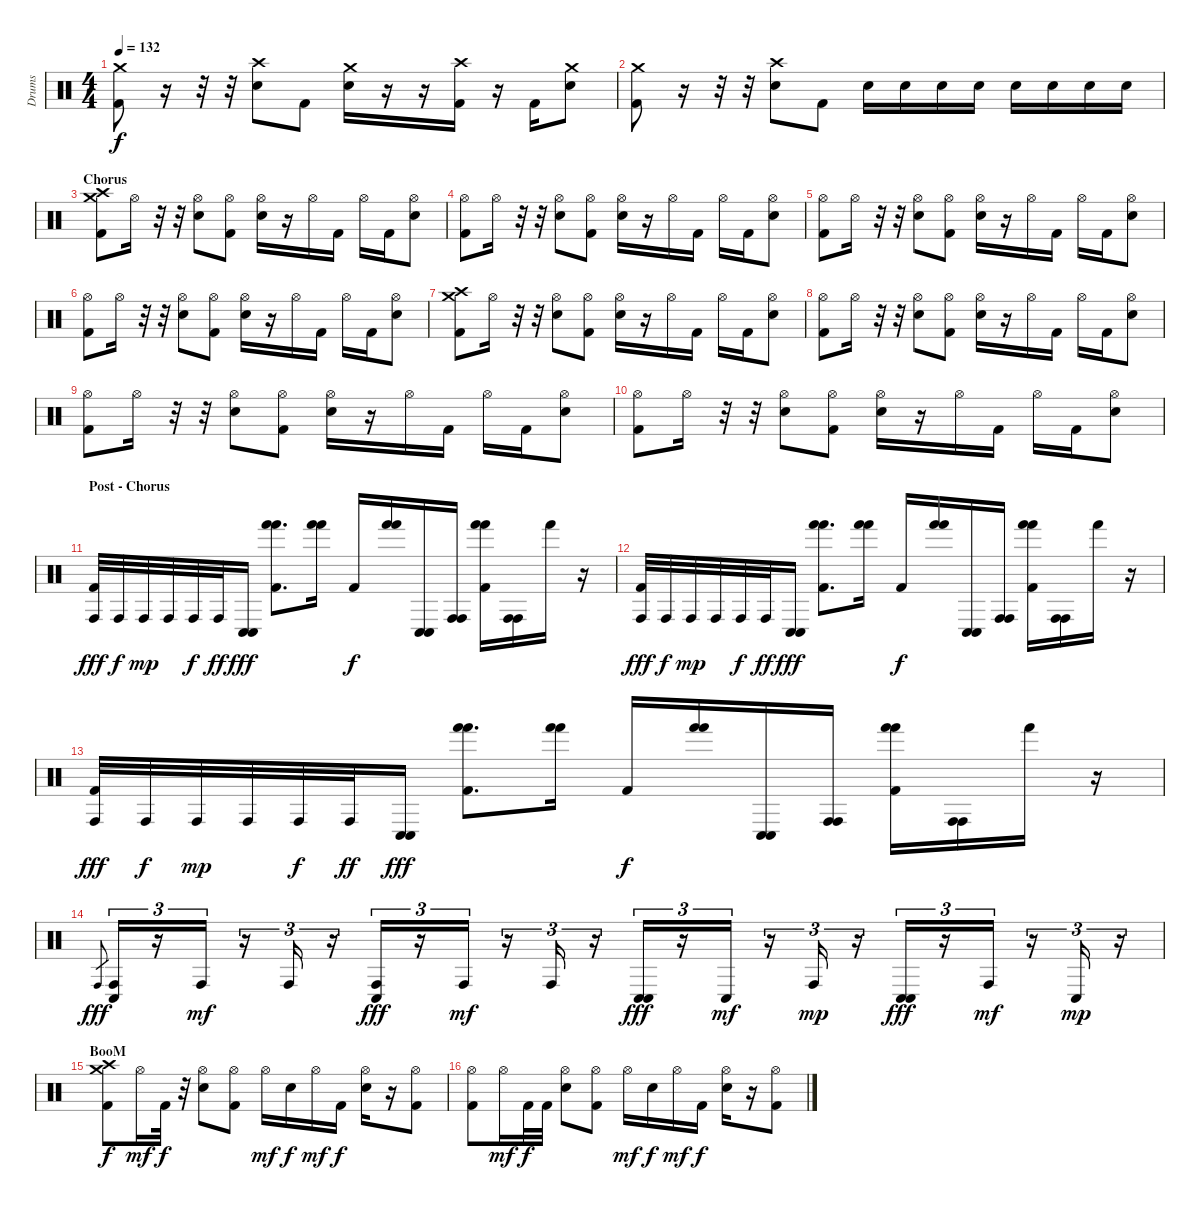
\track ("Drums" "Drums") {instrument percussion}
\staff {score}
\articulation defaults
\ts (4 4)
\tempo 132
\clef neutral
\ks c
("Crash medium (hit)" "Kick (hit) 2").8{dy f} r.16 r.32 r.32 ("Crash high (hit)" "Snare (hit) 2").8 "Kick (hit) 2".8 ("Crash medium (hit)" "Snare (hit) 2").16 r.16 r.16 ("Crash high (hit)" "Kick (hit) 2").16 r.16 "Kick (hit) 2".16 ("Crash medium (hit)" "Snare (hit) 2").8 |
("Crash medium (hit)" "Kick (hit) 2").8 r.16 r.32 r.32 ("Crash high (hit)" "Snare (hit) 2").8 "Kick (hit) 2".8 "Snare (hit) 2".16 "Snare (hit) 2".16 "Snare (hit) 2".16 "Snare (hit) 2".16 "Snare (hit) 2".16 "Snare (hit) 2".16 "Snare (hit) 2".16 "Snare (hit) 2".16 |
\section ("" "Chorus")
("Crash medium (hit)" "Crash high (hit)" "Kick (hit) 2").8 "Hi-Hat (open)".16 r.32 r.32 ("Hi-Hat (open)" "Snare (hit) 2").8 ("Hi-Hat (open)" "Kick (hit) 2").8 ("Hi-Hat (open)" "Snare (hit) 2").16 r.16 "Hi-Hat (open)".16 "Kick (hit) 2".16 "Hi-Hat (open)".16 "Kick (hit) 2".16 ("Hi-Hat (open)" "Snare (hit) 2").8 |
("Hi-Hat (open)" "Kick (hit) 2").8 "Hi-Hat (open)".16 r.32 r.32 ("Hi-Hat (open)" "Snare (hit) 2").8 ("Hi-Hat (open)" "Kick (hit) 2").8 ("Hi-Hat (open)" "Snare (hit) 2").16 r.16 "Hi-Hat (open)".16 "Kick (hit) 2".16 "Hi-Hat (open)".16 "Kick (hit) 2".16 ("Hi-Hat (open)" "Snare (hit) 2").8 |
("Hi-Hat (open)" "Kick (hit) 2").8 "Hi-Hat (open)".16 r.32 r.32 ("Hi-Hat (open)" "Snare (hit) 2").8 ("Hi-Hat (open)" "Kick (hit) 2").8 ("Hi-Hat (open)" "Snare (hit) 2").16 r.16 "Hi-Hat (open)".16 "Kick (hit) 2".16 "Hi-Hat (open)".16 "Kick (hit) 2".16 ("Hi-Hat (open)" "Snare (hit) 2").8 |
("Hi-Hat (open)" "Kick (hit) 2").8 "Hi-Hat (open)".16 r.32 r.32 ("Hi-Hat (open)" "Snare (hit) 2").8 ("Hi-Hat (open)" "Kick (hit) 2").8 ("Hi-Hat (open)" "Snare (hit) 2").16 r.16 "Hi-Hat (open)".16 "Kick (hit) 2".16 "Hi-Hat (open)".16 "Kick (hit) 2".16 ("Hi-Hat (open)" "Snare (hit) 2").8 |
("Crash medium (hit)" "Crash high (hit)" "Kick (hit) 2").8 "Hi-Hat (open)".16 r.32 r.32 ("Hi-Hat (open)" "Snare (hit) 2").8 ("Hi-Hat (open)" "Kick (hit) 2").8 ("Hi-Hat (open)" "Snare (hit) 2").16 r.16 "Hi-Hat (open)".16 "Kick (hit) 2".16 "Hi-Hat (open)".16 "Kick (hit) 2".16 ("Hi-Hat (open)" "Snare (hit) 2").8 |
("Hi-Hat (open)" "Kick (hit) 2").8 "Hi-Hat (open)".16 r.32 r.32 ("Hi-Hat (open)" "Snare (hit) 2").8 ("Hi-Hat (open)" "Kick (hit) 2").8 ("Hi-Hat (open)" "Snare (hit) 2").16 r.16 "Hi-Hat (open)".16 "Kick (hit) 2".16 "Hi-Hat (open)".16 "Kick (hit) 2".16 ("Hi-Hat (open)" "Snare (hit) 2").8 |
("Hi-Hat (open)" "Kick (hit) 2").8 "Hi-Hat (open)".16 r.32 r.32 ("Hi-Hat (open)" "Snare (hit) 2").8 ("Hi-Hat (open)" "Kick (hit) 2").8 ("Hi-Hat (open)" "Snare (hit) 2").16 r.16 "Hi-Hat (open)".16 "Kick (hit) 2".16 "Hi-Hat (open)".16 "Kick (hit) 2".16 ("Hi-Hat (open)" "Snare (hit) 2").8 |
("Hi-Hat (open)" "Kick (hit) 2").8 "Hi-Hat (open)".16 r.32 r.32 ("Hi-Hat (open)" "Snare (hit) 2").8 ("Hi-Hat (open)" "Kick (hit) 2").8 ("Hi-Hat (open)" "Snare (hit) 2").16 r.16 "Hi-Hat (open)".16 "Kick (hit) 2".16 "Hi-Hat (open)".16 "Kick (hit) 2".16 ("Hi-Hat (open)" "Snare (hit) 2").8 |
\section ("" "Post - Chorus")
("Kick (hit) 2" "Conga high (hit)").32{dy fff} "Conga high (hit)".32{dy f} "Conga high (hit)".32{dy mp} "Conga high (hit)".32 "Conga high (hit)".32{dy f} "Conga high (hit)".32{dy ff} ("Conga low (hit)" "Conga low (hit)").16{dy fff} ("Kick (hit) 2" "Hand (hit)" "Hand (hit)").8{d} ("Hand (hit)" "Hand (hit)").16 "Kick (hit) 2".16{dy f} ("Hand (hit)" "Hand (hit)").16 ("Conga low (hit)" "Conga low (hit)").16 ("Conga high (hit)" "Conga high (hit)").16 ("Kick (hit) 2" "Hand (hit)" "Hand (hit)").16 ("Conga high (hit)" "Conga high (hit)").16 "Hand (hit)".16 r.16 |
("Kick (hit) 2" "Conga high (hit)").32{dy fff} "Conga high (hit)".32{dy f} "Conga high (hit)".32{dy mp} "Conga high (hit)".32 "Conga high (hit)".32{dy f} "Conga high (hit)".32{dy ff} ("Conga low (hit)" "Conga low (hit)").16{dy fff} ("Kick (hit) 2" "Hand (hit)" "Hand (hit)").8{d} ("Hand (hit)" "Hand (hit)").16 "Kick (hit) 2".16{dy f} ("Hand (hit)" "Hand (hit)").16 ("Conga low (hit)" "Conga low (hit)").16 ("Conga high (hit)" "Conga high (hit)").16 ("Kick (hit) 2" "Hand (hit)" "Hand (hit)").16 ("Conga high (hit)" "Conga high (hit)").16 "Hand (hit)".16 r.16 |
("Kick (hit) 2" "Conga high (hit)").32{dy fff} "Conga high (hit)".32{dy f} "Conga high (hit)".32{dy mp} "Conga high (hit)".32 "Conga high (hit)".32{dy f} "Conga high (hit)".32{dy ff} ("Conga low (hit)" "Conga low (hit)").16{dy fff} ("Kick (hit) 2" "Hand (hit)" "Hand (hit)").8{d} ("Hand (hit)" "Hand (hit)").16 "Kick (hit) 2".16{dy f} ("Hand (hit)" "Hand (hit)").16 ("Conga low (hit)" "Conga low (hit)").16 ("Conga high (hit)" "Conga high (hit)").16 ("Kick (hit) 2" "Hand (hit)" "Hand (hit)").16 ("Conga high (hit)" "Conga high (hit)").16 "Hand (hit)".16 r.16 |
"Conga high (hit)".8{gr dy fff} ("Conga low (hit)" "Conga high (hit)").16{tu (3 2)} r.16{tu (3 2)} "Conga high (hit)".16{tu (3 2) dy mf} r.16{tu (3 2)} "Conga high (hit)".16{tu (3 2)} r.16{tu (3 2)} ("Conga high (hit)" "Conga low (hit)").16{tu (3 2) dy fff} r.16{tu (3 2)} "Conga high (hit)".16{tu (3 2) dy mf} r.16{tu (3 2)} "Conga high (hit)".16{tu (3 2)} r.16{tu (3 2)} ("Conga low (hit)" "Conga low (hit)").16{tu (3 2) dy fff} r.16{tu (3 2)} "Conga low (hit)".16{tu (3 2) dy mf} r.16{tu (3 2)} "Conga high (hit)".16{tu (3 2) dy mp} r.16{tu (3 2)} ("Conga low (hit)" "Conga low (hit)").16{tu (3 2) dy fff} r.16{tu (3 2)} "Conga high (hit)".16{tu (3 2) dy mf} r.16{tu (3 2)} "Conga low (hit)".16{tu (3 2) dy mp} r.16{tu (3 2)} |
\section ("" "BooM")
("Crash high (hit)" "Crash medium (hit)" "Kick (hit) 2").8{dy f} "Hi-Hat (open)".16{dy mf} "Kick (hit) 2".32{dy f} r.32 ("Hi-Hat (open)" "Snare (hit) 2").8 ("Hi-Hat (open)" "Kick (hit) 2").8 "Hi-Hat (open)".16{dy mf} "Snare (hit) 2".16{dy f} "Hi-Hat (open)".16{dy mf} "Kick (hit) 2".16{dy f} ("Hi-Hat (open)" "Snare (hit) 2").16 r.16 ("Hi-Hat (open)" "Kick (hit) 2").8 |
("Hi-Hat (open)" "Kick (hit) 2").8 "Hi-Hat (open)".16{dy mf} "Kick (hit) 2".32{dy f} "Kick (hit) 2".32 ("Hi-Hat (open)" "Snare (hit) 2").8 ("Hi-Hat (open)" "Kick (hit) 2").8 "Hi-Hat (open)".16{dy mf} "Snare (hit) 2".16{dy f} "Hi-Hat (open)".16{dy mf} "Kick (hit) 2".16{dy f} ("Hi-Hat (open)" "Snare (hit) 2").16 r.16 ("Hi-Hat (open)" "Kick (hit) 2").8
